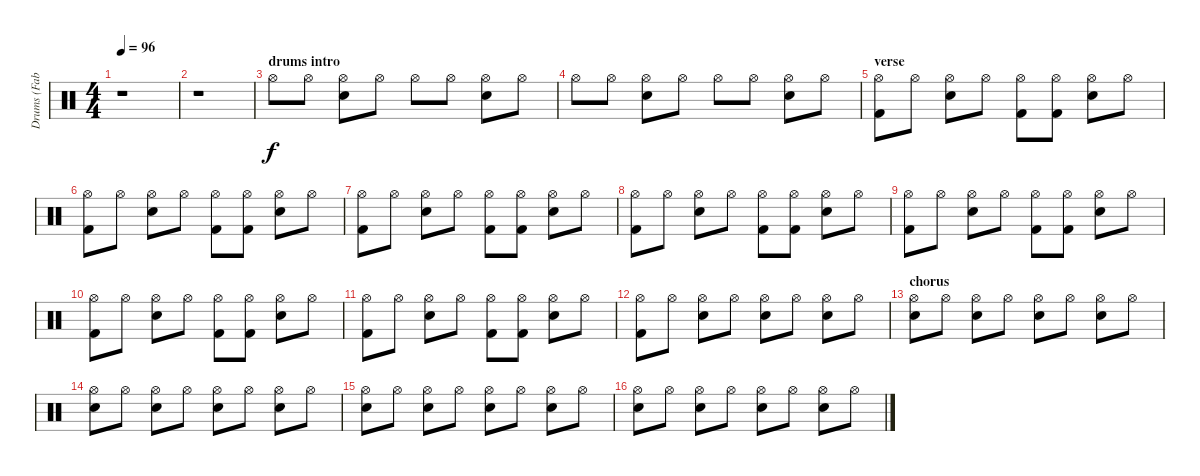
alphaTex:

\track ("Drums (Fab Moretti)" "Drums (Fab") {instrument percussion}
\staff {score}
\articulation defaults
\ts (4 4)
\tempo 96
\clef neutral
\ks c
r.1{dy f} |
r.1 |
\section ("" "drums intro")
"Hi-Hat (open)".8 "Hi-Hat (open)".8 ("Hi-Hat (open)" "Snare (hit) 2").8 "Hi-Hat (open)".8 "Hi-Hat (open)".8 "Hi-Hat (open)".8 ("Hi-Hat (open)" "Snare (hit) 2").8 "Hi-Hat (open)".8 |
"Hi-Hat (open)".8 "Hi-Hat (open)".8 ("Hi-Hat (open)" "Snare (hit) 2").8 "Hi-Hat (open)".8 "Hi-Hat (open)".8 "Hi-Hat (open)".8 ("Hi-Hat (open)" "Snare (hit) 2").8 "Hi-Hat (open)".8 |
\section ("" "verse")
("Hi-Hat (open)" "Kick (hit) 2").8 "Hi-Hat (open)".8 ("Hi-Hat (open)" "Snare (hit) 2").8 "Hi-Hat (open)".8 ("Hi-Hat (open)" "Kick (hit) 2").8 ("Hi-Hat (open)" "Kick (hit) 2").8 ("Hi-Hat (open)" "Snare (hit) 2").8 "Hi-Hat (open)".8 |
("Hi-Hat (open)" "Kick (hit) 2").8 "Hi-Hat (open)".8 ("Hi-Hat (open)" "Snare (hit) 2").8 "Hi-Hat (open)".8 ("Hi-Hat (open)" "Kick (hit) 2").8 ("Hi-Hat (open)" "Kick (hit) 2").8 ("Hi-Hat (open)" "Snare (hit) 2").8 "Hi-Hat (open)".8 |
("Hi-Hat (open)" "Kick (hit) 2").8 "Hi-Hat (open)".8 ("Hi-Hat (open)" "Snare (hit) 2").8 "Hi-Hat (open)".8 ("Hi-Hat (open)" "Kick (hit) 2").8 ("Hi-Hat (open)" "Kick (hit) 2").8 ("Hi-Hat (open)" "Snare (hit) 2").8 "Hi-Hat (open)".8 |
("Hi-Hat (open)" "Kick (hit) 2").8 "Hi-Hat (open)".8 ("Hi-Hat (open)" "Snare (hit) 2").8 "Hi-Hat (open)".8 ("Hi-Hat (open)" "Kick (hit) 2").8 ("Hi-Hat (open)" "Kick (hit) 2").8 ("Hi-Hat (open)" "Snare (hit) 2").8 "Hi-Hat (open)".8 |
("Hi-Hat (open)" "Kick (hit) 2").8 "Hi-Hat (open)".8 ("Hi-Hat (open)" "Snare (hit) 2").8 "Hi-Hat (open)".8 ("Hi-Hat (open)" "Kick (hit) 2").8 ("Hi-Hat (open)" "Kick (hit) 2").8 ("Hi-Hat (open)" "Snare (hit) 2").8 "Hi-Hat (open)".8 |
("Hi-Hat (open)" "Kick (hit) 2").8 "Hi-Hat (open)".8 ("Hi-Hat (open)" "Snare (hit) 2").8 "Hi-Hat (open)".8 ("Hi-Hat (open)" "Kick (hit) 2").8 ("Hi-Hat (open)" "Kick (hit) 2").8 ("Hi-Hat (open)" "Snare (hit) 2").8 "Hi-Hat (open)".8 |
("Hi-Hat (open)" "Kick (hit) 2").8 "Hi-Hat (open)".8 ("Hi-Hat (open)" "Snare (hit) 2").8 "Hi-Hat (open)".8 ("Hi-Hat (open)" "Kick (hit) 2").8 ("Hi-Hat (open)" "Kick (hit) 2").8 ("Hi-Hat (open)" "Snare (hit) 2").8 "Hi-Hat (open)".8 |
("Hi-Hat (open)" "Kick (hit) 2").8 "Hi-Hat (open)".8 ("Hi-Hat (open)" "Snare (hit) 2").8 "Hi-Hat (open)".8 ("Hi-Hat (open)" "Snare (hit) 2").8 "Hi-Hat (open)".8 ("Hi-Hat (open)" "Snare (hit) 2").8 "Hi-Hat (open)".8 |
\section ("" "chorus")
("Hi-Hat (open)" "Snare (hit) 2").8 "Hi-Hat (open)".8 ("Hi-Hat (open)" "Snare (hit) 2").8 "Hi-Hat (open)".8 ("Hi-Hat (open)" "Snare (hit) 2").8 "Hi-Hat (open)".8 ("Hi-Hat (open)" "Snare (hit) 2").8 "Hi-Hat (open)".8 |
("Hi-Hat (open)" "Snare (hit) 2").8 "Hi-Hat (open)".8 ("Hi-Hat (open)" "Snare (hit) 2").8 "Hi-Hat (open)".8 ("Hi-Hat (open)" "Snare (hit) 2").8 "Hi-Hat (open)".8 ("Hi-Hat (open)" "Snare (hit) 2").8 "Hi-Hat (open)".8 |
("Hi-Hat (open)" "Snare (hit) 2").8 "Hi-Hat (open)".8 ("Hi-Hat (open)" "Snare (hit) 2").8 "Hi-Hat (open)".8 ("Hi-Hat (open)" "Snare (hit) 2").8 "Hi-Hat (open)".8 ("Hi-Hat (open)" "Snare (hit) 2").8 "Hi-Hat (open)".8 |
("Hi-Hat (open)" "Snare (hit) 2").8 "Hi-Hat (open)".8 ("Hi-Hat (open)" "Snare (hit) 2").8 "Hi-Hat (open)".8 ("Hi-Hat (open)" "Snare (hit) 2").8 "Hi-Hat (open)".8 ("Hi-Hat (open)" "Snare (hit) 2").8 "Hi-Hat (open)".8
